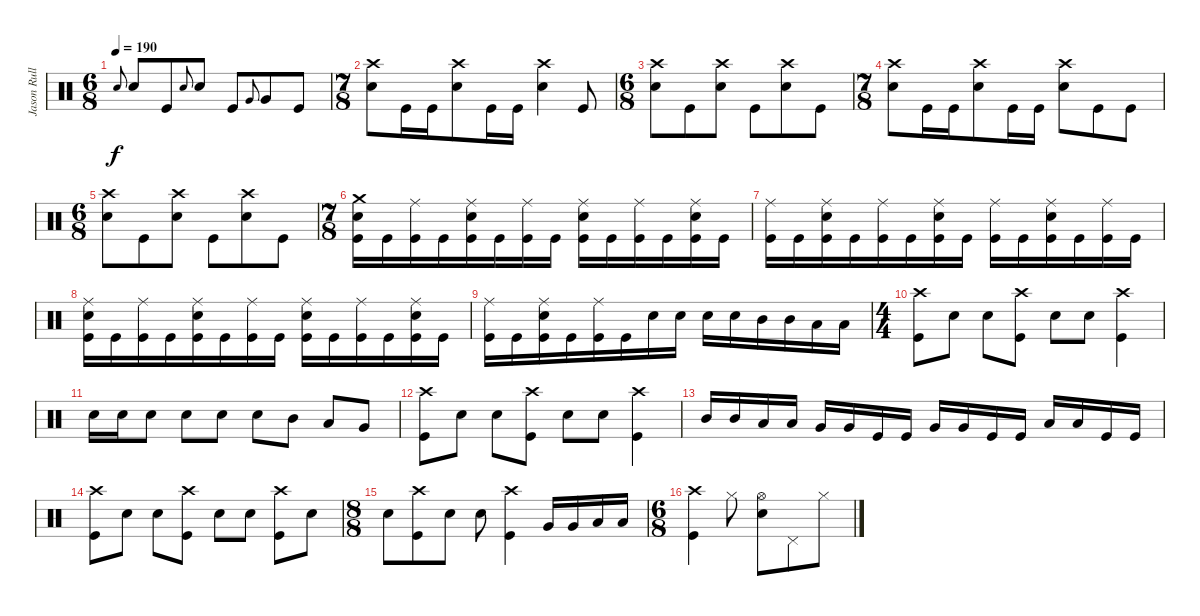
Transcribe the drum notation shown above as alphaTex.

\track ("Jason Rullo - Drums and Percussion" "Jason Rull") {instrument percussion}
\staff {score}
\articulation defaults
\ts (6 8)
\tempo 190
\clef neutral
\ks c "Snare (hit) 2".8{gr onbeat dy f} "Snare (hit) 2".8 "Kick (hit)".8 "Snare (hit) 2".8{gr onbeat} "Snare (hit) 2".8 "Kick (hit)".8 "Very Low Tom (hit)".8{gr onbeat} "Very Low Tom (hit)".8 "Kick (hit)".8
|
\ts (7 8)
("Snare (hit) 2" "Crash high (hit)").8 "Kick (hit)".16 "Kick (hit)".16 ("Snare (hit) 2" "Crash high (hit)").8 "Kick (hit)".16 "Kick (hit)".16 ("Snare (hit) 2" "Crash high (hit)").4 "Kick (hit)".8 |
\ts (6 8)
("Snare (hit) 2" "Crash high (hit)").8 "Kick (hit)".8 ("Snare (hit) 2" "Crash high (hit)").8 "Kick (hit)".8 ("Snare (hit) 2" "Crash high (hit)").8 "Kick (hit)".8 |
\ts (7 8)
("Snare (hit) 2" "Crash high (hit)").8 "Kick (hit)".16 "Kick (hit)".16 ("Snare (hit) 2" "Crash high (hit)").8 "Kick (hit)".16 "Kick (hit)".16 ("Snare (hit) 2" "Crash high (hit)").8 "Kick (hit)".8 "Kick (hit)".8 |
\ts (6 8)
("Snare (hit) 2" "Crash high (hit)").8 "Kick (hit)".8 ("Snare (hit) 2" "Crash high (hit)").8 "Kick (hit)".8 ("Snare (hit) 2" "Crash high (hit)").8 "Kick (hit)".8 |
\ts (7 8)
("Kick (hit)" "Crash medium (hit)" "Snare (hit) 2").16 "Kick (hit)".16 ("Kick (hit)" "Ride (middle)").16 "Kick (hit)".16 ("Kick (hit)" "Ride (middle)" "Snare (hit) 2").16 "Kick (hit)".16 ("Kick (hit)" "Ride (middle)").16 "Kick (hit)".16 ("Kick (hit)" "Ride (middle)" "Snare (hit) 2").16 "Kick (hit)".16 ("Kick (hit)" "Ride (middle)").16 "Kick (hit)".16 ("Kick (hit)" "Ride (middle)" "Snare (hit) 2").16 "Kick (hit)".16 |
("Kick (hit)" "Ride (middle)").16 "Kick (hit)".16 ("Kick (hit)" "Ride (middle)" "Snare (hit) 2").16 "Kick (hit)".16 ("Kick (hit)" "Ride (middle)").16 "Kick (hit)".16 ("Kick (hit)" "Ride (middle)" "Snare (hit) 2").16 "Kick (hit)".16 ("Kick (hit)" "Ride (middle)").16 "Kick (hit)".16 ("Kick (hit)" "Ride (middle)" "Snare (hit) 2").16 "Kick (hit)".16 ("Kick (hit)" "Ride (middle)").16 "Kick (hit)".16 |
("Kick (hit)" "Ride (middle)" "Snare (hit) 2").16 "Kick (hit)".16 ("Kick (hit)" "Ride (middle)").16 "Kick (hit)".16 ("Kick (hit)" "Ride (middle)" "Snare (hit) 2").16 "Kick (hit)".16 ("Kick (hit)" "Ride (middle)").16 "Kick (hit)".16 ("Kick (hit)" "Ride (middle)" "Snare (hit) 2").16 "Kick (hit)".16 ("Kick (hit)" "Ride (middle)").16 "Kick (hit)".16 ("Kick (hit)" "Ride (middle)" "Snare (hit) 2").16 "Kick (hit)".16 |
("Kick (hit)" "Ride (middle)").16 "Kick (hit)".16 ("Kick (hit)" "Ride (middle)" "Snare (hit) 2").16 "Kick (hit)".16 ("Kick (hit)" "Ride (middle)").16 "Kick (hit)".16 "Snare (hit) 2".16 "Snare (hit) 2".16 "Snare (hit) 2".16 "Snare (hit) 2".16 "Mid Tom (hit)".16 "Mid Tom (hit)".16 "Low Tom (hit)".16 "Low Tom (hit)".16 |
\ts (4 4)
("Crash high (hit)" "Kick (hit)").8 "Snare (hit) 2".8 "Snare (hit) 2".8 ("Kick (hit)" "Crash high (hit)").8 "Snare (hit) 2".8 "Snare (hit) 2".8 ("Kick (hit)" "Crash high (hit)").4 |
"Snare (hit) 2".16 "Snare (hit) 2".16 "Snare (hit) 2".8 "Snare (hit) 2".8 "Snare (hit) 2".8 "Snare (hit) 2".8 "Mid Tom (hit)".8 "Low Tom (hit)".8 "Very Low Tom (hit)".8 |
("Crash high (hit)" "Kick (hit)").8 "Snare (hit) 2".8 "Snare (hit) 2".8 ("Kick (hit)" "Crash high (hit)").8 "Snare (hit) 2".8 "Snare (hit) 2".8 ("Kick (hit)" "Crash high (hit)").4 |
"Mid Tom (hit)".16 "Mid Tom (hit)".16 "Low Tom (hit)".16 "Low Tom (hit)".16 "Very Low Tom (hit)".16 "Very Low Tom (hit)".16 "Kick (hit)".16 "Kick (hit)".16 "Very Low Tom (hit)".16 "Very Low Tom (hit)".16 "Kick (hit)".16 "Kick (hit)".16 "Low Floor Tom (hit)".16 "Low Floor Tom (hit)".16 "Kick (hit)".16 "Kick (hit)".16 |
("Kick (hit)" "Crash high (hit)").8 "Snare (hit) 2".8 "Snare (hit) 2".8 ("Kick (hit)" "Crash high (hit)").8 "Snare (hit) 2".8 "Snare (hit) 2".8 ("Kick (hit)" "Crash high (hit)").8 "Snare (hit) 2".8 |
\ts (8 8)
"Snare (hit) 2".8 ("Crash high (hit)" "Kick (hit)").8 "Snare (hit) 2".8 "Snare (hit) 2".8 ("Crash high (hit)" "Kick (hit)").4 "Very Low Tom (hit)".16 "Very Low Tom (hit)".16 "Low Floor Tom (hit)".16 "Low Floor Tom (hit)".16 |
\ts (6 8)
("Kick (hit)" "Crash high (hit)").4 "Hi-Hat (closed)".8 ("Snare (hit) 2" "Hi-Hat (open)").8 "Pedal Hi-Hat (hit)".8 "Hi-Hat (closed)".8
